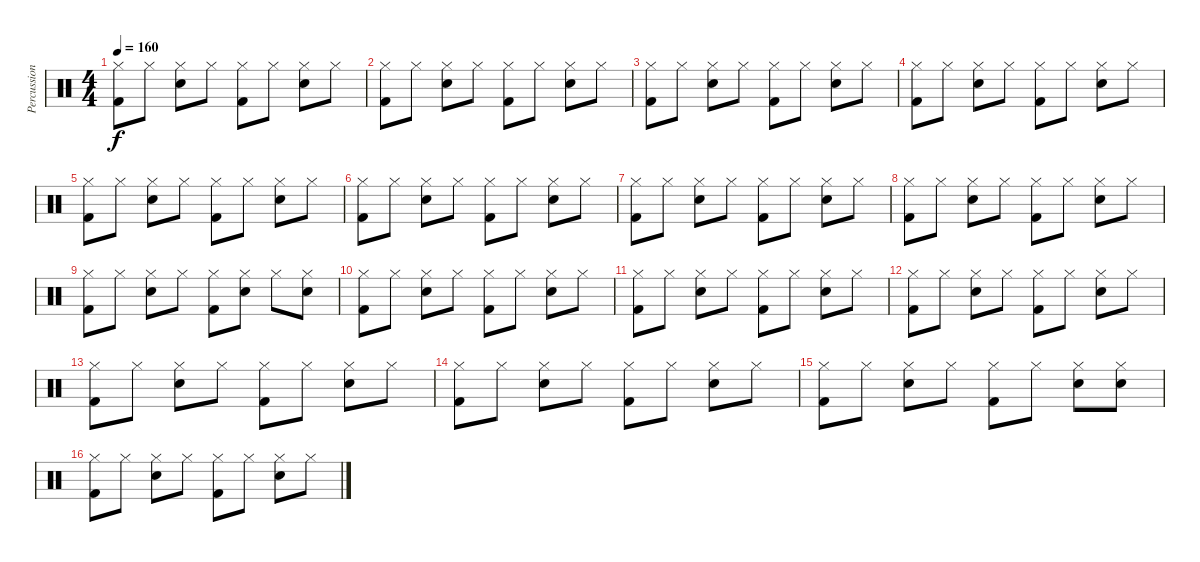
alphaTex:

\track ("Percussions" "Percussion") {instrument percussion}
\staff {score}
\articulation defaults
\ts (4 4)
\tempo 160
\clef neutral
\ks c
("Hi-Hat (closed)" "Kick (hit) 2").8{dy f} "Hi-Hat (closed)".8 ("Hi-Hat (closed)" "Snare (hit) 2").8 "Hi-Hat (closed)".8 ("Hi-Hat (closed)" "Kick (hit) 2").8 "Hi-Hat (closed)".8 ("Hi-Hat (closed)" "Snare (hit) 2").8 "Hi-Hat (closed)".8 |
("Hi-Hat (closed)" "Kick (hit) 2").8 "Hi-Hat (closed)".8 ("Hi-Hat (closed)" "Snare (hit) 2").8 "Hi-Hat (closed)".8 ("Hi-Hat (closed)" "Kick (hit) 2").8 "Hi-Hat (closed)".8 ("Hi-Hat (closed)" "Snare (hit) 2").8 "Hi-Hat (closed)".8 |
("Hi-Hat (closed)" "Kick (hit) 2").8 "Hi-Hat (closed)".8 ("Hi-Hat (closed)" "Snare (hit) 2").8 "Hi-Hat (closed)".8 ("Hi-Hat (closed)" "Kick (hit) 2").8 "Hi-Hat (closed)".8 ("Snare (hit) 2" "Hi-Hat (closed)").8 "Hi-Hat (closed)".8 |
("Kick (hit) 2" "Hi-Hat (closed)").8 "Hi-Hat (closed)".8 ("Snare (hit) 2" "Hi-Hat (closed)").8 "Hi-Hat (closed)".8 ("Kick (hit) 2" "Hi-Hat (closed)").8 "Hi-Hat (closed)".8 ("Snare (hit) 2" "Hi-Hat (closed)").8 "Hi-Hat (closed)".8 |
("Hi-Hat (closed)" "Kick (hit) 2").8 "Hi-Hat (closed)".8 ("Hi-Hat (closed)" "Snare (hit) 2").8 "Hi-Hat (closed)".8 ("Kick (hit) 2" "Hi-Hat (closed)").8 "Hi-Hat (closed)".8 ("Hi-Hat (closed)" "Snare (hit) 2").8 "Hi-Hat (closed)".8 |
("Hi-Hat (closed)" "Kick (hit) 2").8 "Hi-Hat (closed)".8 ("Hi-Hat (closed)" "Snare (hit) 2").8 "Hi-Hat (closed)".8 ("Hi-Hat (closed)" "Kick (hit) 2").8 "Hi-Hat (closed)".8 ("Hi-Hat (closed)" "Snare (hit) 2").8 "Hi-Hat (closed)".8 |
("Hi-Hat (closed)" "Kick (hit) 2").8 "Hi-Hat (closed)".8 ("Hi-Hat (closed)" "Snare (hit) 2").8 "Hi-Hat (closed)".8 ("Hi-Hat (closed)" "Kick (hit) 2").8 "Hi-Hat (closed)".8 ("Hi-Hat (closed)" "Snare (hit) 2").8 "Hi-Hat (closed)".8 |
("Hi-Hat (closed)" "Kick (hit) 2").8 "Hi-Hat (closed)".8 ("Hi-Hat (closed)" "Snare (hit) 2").8 "Hi-Hat (closed)".8 ("Hi-Hat (closed)" "Kick (hit) 2").8 "Hi-Hat (closed)".8 ("Hi-Hat (closed)" "Snare (hit) 2").8 "Hi-Hat (closed)".8 |
("Hi-Hat (closed)" "Kick (hit) 2").8 "Hi-Hat (closed)".8 ("Hi-Hat (closed)" "Snare (hit) 2").8 "Hi-Hat (closed)".8 ("Hi-Hat (closed)" "Kick (hit) 2").8 ("Hi-Hat (closed)" "Snare (hit) 2").8 "Hi-Hat (closed)".8 ("Hi-Hat (closed)" "Snare (hit) 2").8 |
("Hi-Hat (closed)" "Kick (hit) 2").8 "Hi-Hat (closed)".8 ("Hi-Hat (closed)" "Snare (hit) 2").8 "Hi-Hat (closed)".8 ("Hi-Hat (closed)" "Kick (hit) 2").8 "Hi-Hat (closed)".8 ("Hi-Hat (closed)" "Snare (hit) 2").8 "Hi-Hat (closed)".8 |
("Hi-Hat (closed)" "Kick (hit) 2").8 "Hi-Hat (closed)".8 ("Hi-Hat (closed)" "Snare (hit) 2").8 "Hi-Hat (closed)".8 ("Hi-Hat (closed)" "Kick (hit) 2").8 "Hi-Hat (closed)".8 ("Snare (hit) 2" "Hi-Hat (closed)").8 "Hi-Hat (closed)".8 |
("Kick (hit) 2" "Hi-Hat (closed)").8 "Hi-Hat (closed)".8 ("Snare (hit) 2" "Hi-Hat (closed)").8 "Hi-Hat (closed)".8 ("Kick (hit) 2" "Hi-Hat (closed)").8 "Hi-Hat (closed)".8 ("Snare (hit) 2" "Hi-Hat (closed)").8 "Hi-Hat (closed)".8 |
("Hi-Hat (closed)" "Kick (hit) 2").8 "Hi-Hat (closed)".8 ("Hi-Hat (closed)" "Snare (hit) 2").8 "Hi-Hat (closed)".8 ("Kick (hit) 2" "Hi-Hat (closed)").8 "Hi-Hat (closed)".8 ("Hi-Hat (closed)" "Snare (hit) 2").8 "Hi-Hat (closed)".8 |
("Hi-Hat (closed)" "Kick (hit) 2").8 "Hi-Hat (closed)".8 ("Hi-Hat (closed)" "Snare (hit) 2").8 "Hi-Hat (closed)".8 ("Hi-Hat (closed)" "Kick (hit) 2").8 "Hi-Hat (closed)".8 ("Hi-Hat (closed)" "Snare (hit) 2").8 "Hi-Hat (closed)".8 |
("Hi-Hat (closed)" "Kick (hit) 2").8 "Hi-Hat (closed)".8 ("Hi-Hat (closed)" "Snare (hit) 2").8 "Hi-Hat (closed)".8 ("Hi-Hat (closed)" "Kick (hit) 2").8 "Hi-Hat (closed)".8 ("Hi-Hat (closed)" "Snare (hit) 2").8 ("Hi-Hat (closed)" "Snare (hit) 2").8 |
("Hi-Hat (closed)" "Kick (hit) 2").8 "Hi-Hat (closed)".8 ("Hi-Hat (closed)" "Snare (hit) 2").8 "Hi-Hat (closed)".8 ("Hi-Hat (closed)" "Kick (hit) 2").8 "Hi-Hat (closed)".8 ("Hi-Hat (closed)" "Snare (hit) 2").8 "Hi-Hat (closed)".8
